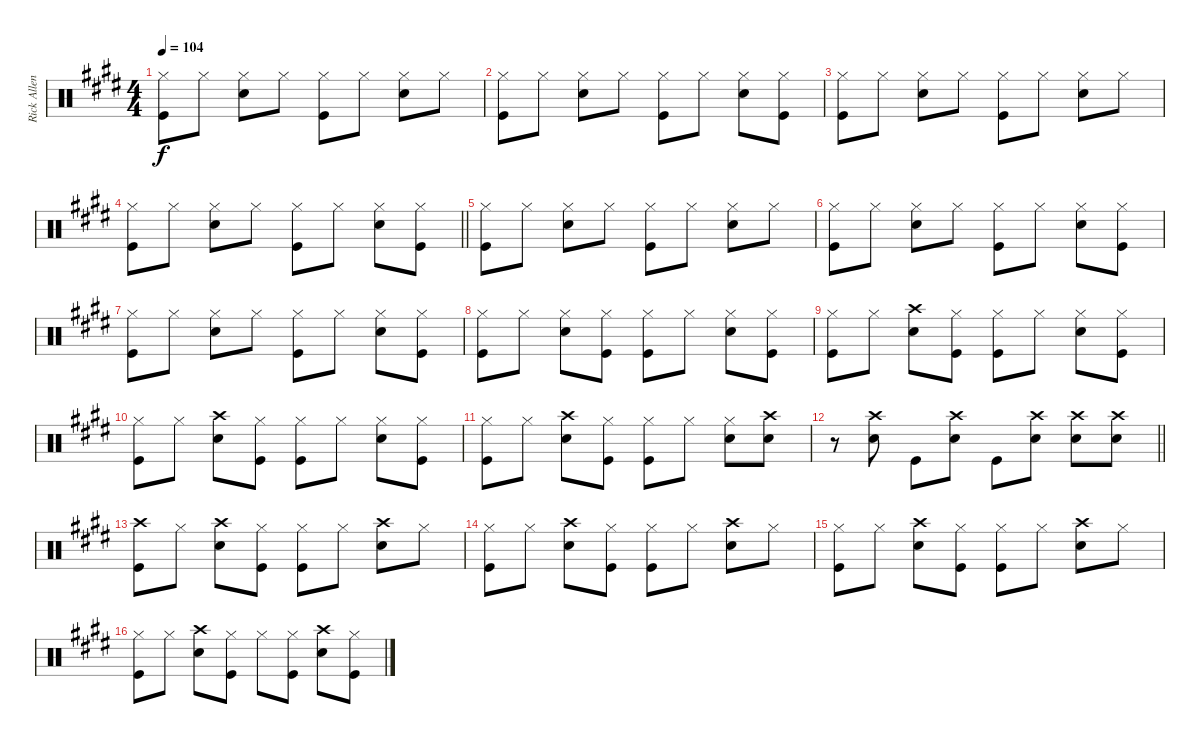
\track ("Rick Allen" "Rick Allen") {instrument percussion}
\staff {score}
\articulation defaults
\ts (4 4)
\tempo 104
\clef neutral
\ks e
("Hi-Hat (closed)" "Kick (hit)").8{dy f} "Hi-Hat (closed)".8 ("Hi-Hat (closed)" "Snare (hit) 2").8 "Hi-Hat (closed)".8 ("Hi-Hat (closed)" "Kick (hit)").8 "Hi-Hat (closed)".8 ("Hi-Hat (closed)" "Snare (hit) 2").8 "Hi-Hat (closed)".8 |
("Hi-Hat (closed)" "Kick (hit)").8 "Hi-Hat (closed)".8 ("Hi-Hat (closed)" "Snare (hit) 2").8 "Hi-Hat (closed)".8 ("Hi-Hat (closed)" "Kick (hit)").8 "Hi-Hat (closed)".8 ("Hi-Hat (closed)" "Snare (hit) 2").8 ("Hi-Hat (closed)" "Kick (hit)").8 |
("Hi-Hat (closed)" "Kick (hit)").8 "Hi-Hat (closed)".8 ("Hi-Hat (closed)" "Snare (hit) 2").8 "Hi-Hat (closed)".8 ("Hi-Hat (closed)" "Kick (hit)").8 "Hi-Hat (closed)".8 ("Hi-Hat (closed)" "Snare (hit) 2").8 "Hi-Hat (closed)".8 |
\barLineRight lightlight
("Hi-Hat (closed)" "Kick (hit)").8 "Hi-Hat (closed)".8 ("Hi-Hat (closed)" "Snare (hit) 2").8 "Hi-Hat (closed)".8 ("Hi-Hat (closed)" "Kick (hit)").8 "Hi-Hat (closed)".8 ("Hi-Hat (closed)" "Snare (hit) 2").8 ("Hi-Hat (closed)" "Kick (hit)").8 |
("Hi-Hat (closed)" "Kick (hit)").8 "Hi-Hat (closed)".8 ("Hi-Hat (closed)" "Snare (hit) 2").8 "Hi-Hat (closed)".8 ("Hi-Hat (closed)" "Kick (hit)").8 "Hi-Hat (closed)".8 ("Hi-Hat (closed)" "Snare (hit) 2").8 "Hi-Hat (closed)".8 |
("Hi-Hat (closed)" "Kick (hit)").8 "Hi-Hat (closed)".8 ("Hi-Hat (closed)" "Snare (hit) 2").8 "Hi-Hat (closed)".8 ("Hi-Hat (closed)" "Kick (hit)").8 "Hi-Hat (closed)".8 ("Hi-Hat (closed)" "Snare (hit) 2").8 ("Hi-Hat (closed)" "Kick (hit)").8 |
("Hi-Hat (closed)" "Kick (hit)").8 "Hi-Hat (closed)".8 ("Hi-Hat (closed)" "Snare (hit) 2").8 "Hi-Hat (closed)".8 ("Hi-Hat (closed)" "Kick (hit)").8 "Hi-Hat (closed)".8 ("Hi-Hat (closed)" "Snare (hit) 2").8 ("Hi-Hat (closed)" "Kick (hit)").8 |
("Hi-Hat (closed)" "Kick (hit)").8 "Hi-Hat (closed)".8 ("Hi-Hat (closed)" "Snare (hit) 2").8 ("Hi-Hat (closed)" "Kick (hit)").8 ("Hi-Hat (closed)" "Kick (hit)").8 "Hi-Hat (closed)".8 ("Hi-Hat (closed)" "Snare (hit) 2").8 ("Hi-Hat (closed)" "Kick (hit)").8 |
("Hi-Hat (closed)" "Kick (hit)").8 "Hi-Hat (closed)".8 ("Crash high (hit)" "Snare (hit) 2").8 ("Hi-Hat (closed)" "Kick (hit)").8 ("Hi-Hat (closed)" "Kick (hit)").8 "Hi-Hat (closed)".8 ("Hi-Hat (closed)" "Snare (hit) 2").8 ("Hi-Hat (closed)" "Kick (hit)").8 |
("Hi-Hat (closed)" "Kick (hit)").8 "Hi-Hat (closed)".8 ("Crash high (hit)" "Snare (hit) 2").8 ("Hi-Hat (closed)" "Kick (hit)").8 ("Hi-Hat (closed)" "Kick (hit)").8 "Hi-Hat (closed)".8 ("Hi-Hat (closed)" "Snare (hit) 2").8 ("Hi-Hat (closed)" "Kick (hit)").8 |
("Hi-Hat (closed)" "Kick (hit)").8 "Hi-Hat (closed)".8 ("Crash high (hit)" "Snare (hit) 2").8 ("Hi-Hat (closed)" "Kick (hit)").8 ("Hi-Hat (closed)" "Kick (hit)").8 "Hi-Hat (closed)".8 ("Hi-Hat (closed)" "Snare (hit) 2").8 ("Crash high (hit)" "Snare (hit) 2").8 |
\barLineRight lightlight
r.8 ("Crash high (hit)" "Snare (hit) 2").8 "Kick (hit)".8 ("Crash high (hit)" "Snare (hit) 2").8 "Kick (hit)".8 ("Crash high (hit)" "Snare (hit) 2").8 ("Crash high (hit)" "Snare (hit) 2").8 ("Crash high (hit)" "Snare (hit) 2").8 |
("Crash high (hit)" "Kick (hit)").8 "Hi-Hat (closed)".8 ("Crash high (hit)" "Snare (hit) 2").8 ("Hi-Hat (closed)" "Kick (hit)").8 ("Hi-Hat (closed)" "Kick (hit)").8 "Hi-Hat (closed)".8 ("Crash high (hit)" "Snare (hit) 2").8 "Hi-Hat (closed)".8 |
("Hi-Hat (closed)" "Kick (hit)").8 "Hi-Hat (closed)".8 ("Crash high (hit)" "Snare (hit) 2").8 ("Hi-Hat (closed)" "Kick (hit)").8 ("Hi-Hat (closed)" "Kick (hit)").8 "Hi-Hat (closed)".8 ("Crash high (hit)" "Snare (hit) 2").8 "Hi-Hat (closed)".8 |
("Hi-Hat (closed)" "Kick (hit)").8 "Hi-Hat (closed)".8 ("Crash high (hit)" "Snare (hit) 2").8 ("Hi-Hat (closed)" "Kick (hit)").8 ("Hi-Hat (closed)" "Kick (hit)").8 "Hi-Hat (closed)".8 ("Crash high (hit)" "Snare (hit) 2").8 "Hi-Hat (closed)".8 |
("Hi-Hat (closed)" "Kick (hit)").8 "Hi-Hat (closed)".8 ("Crash high (hit)" "Snare (hit) 2").8 ("Hi-Hat (closed)" "Kick (hit)").8 "Hi-Hat (closed)".8 ("Hi-Hat (closed)" "Kick (hit)").8 ("Crash high (hit)" "Snare (hit) 2").8 ("Hi-Hat (closed)" "Kick (hit)").8
